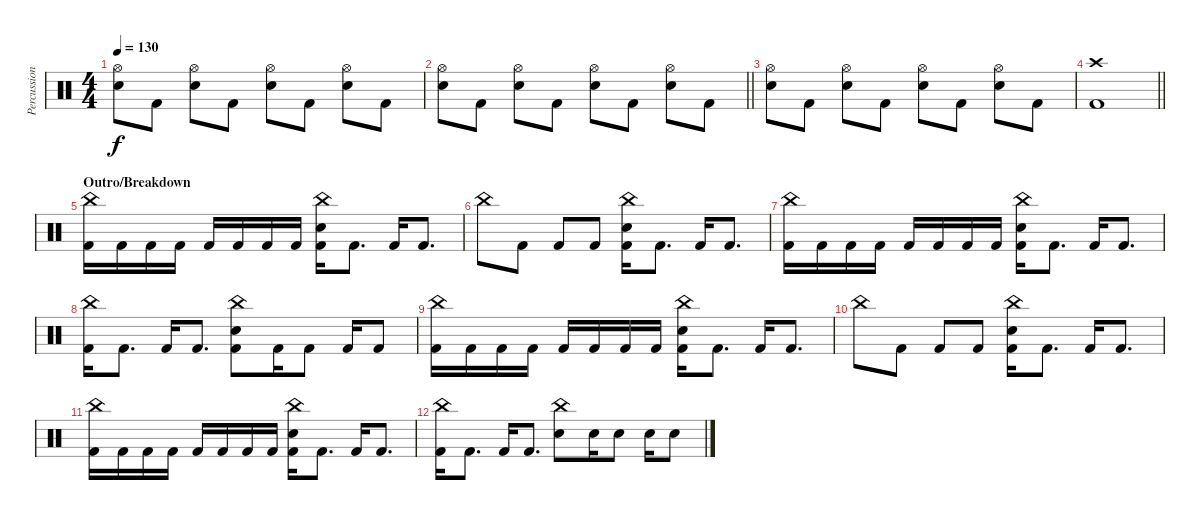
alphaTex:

\track ("Percussion" "Percussion") {instrument percussion}
\staff {score}
\articulation defaults
\ts (4 4)
\tempo 130
\clef neutral
\ks c
("Hi-Hat (open)" "Electric Snare (hit)").8{dy f} "Kick (hit) 2".8 ("Hi-Hat (open)" "Electric Snare (hit)").8 "Kick (hit) 2".8 ("Hi-Hat (open)" "Electric Snare (hit)").8 "Kick (hit) 2".8 ("Hi-Hat (open)" "Electric Snare (hit)").8 "Kick (hit) 2".8 |
\barLineRight lightlight
("Hi-Hat (open)" "Electric Snare (hit)").8 "Kick (hit) 2".8 ("Hi-Hat (open)" "Electric Snare (hit)").8 "Kick (hit) 2".8 ("Hi-Hat (open)" "Electric Snare (hit)").8 "Kick (hit) 2".8 ("Hi-Hat (open)" "Electric Snare (hit)").8 "Kick (hit) 2".8 |
("Hi-Hat (open)" "Electric Snare (hit)").8 "Kick (hit) 2".8 ("Hi-Hat (open)" "Electric Snare (hit)").8 "Kick (hit) 2".8 ("Hi-Hat (open)" "Electric Snare (hit)").8 "Kick (hit) 2".8 ("Hi-Hat (open)" "Electric Snare (hit)").8 "Kick (hit) 2".8 |
\barLineRight lightlight
("Crash high (hit)" "Kick (hit) 2").1 |
\section ("" "Outro/Breakdown")
("China (hit)" "Kick (hit) 2").16 "Kick (hit) 2".16 "Kick (hit) 2".16 "Kick (hit) 2".16 "Kick (hit) 2".16 "Kick (hit) 2".16 "Kick (hit) 2".16 "Kick (hit) 2".16 ("China (hit)" "Electric Snare (hit)" "Kick (hit) 2").16 "Kick (hit) 2".8{d} "Kick (hit) 2".16 "Kick (hit) 2".8{d} |
"China (hit)".8 "Kick (hit) 2".8 "Kick (hit) 2".8 "Kick (hit) 2".8 ("China (hit)" "Electric Snare (hit)" "Kick (hit) 2").16 "Kick (hit) 2".8{d} "Kick (hit) 2".16 "Kick (hit) 2".8{d} |
("China (hit)" "Kick (hit) 2").16 "Kick (hit) 2".16 "Kick (hit) 2".16 "Kick (hit) 2".16 "Kick (hit) 2".16 "Kick (hit) 2".16 "Kick (hit) 2".16 "Kick (hit) 2".16 ("China (hit)" "Electric Snare (hit)" "Kick (hit) 2").16 "Kick (hit) 2".8{d} "Kick (hit) 2".16 "Kick (hit) 2".8{d} |
("China (hit)" "Kick (hit) 2").16 "Kick (hit) 2".8{d} "Kick (hit) 2".16 "Kick (hit) 2".8{d} ("China (hit)" "Electric Snare (hit)" "Kick (hit) 2").8 "Kick (hit) 2".16 "Kick (hit) 2".8 "Kick (hit) 2".16 "Kick (hit) 2".8 |
("China (hit)" "Kick (hit) 2").16 "Kick (hit) 2".16 "Kick (hit) 2".16 "Kick (hit) 2".16 "Kick (hit) 2".16 "Kick (hit) 2".16 "Kick (hit) 2".16 "Kick (hit) 2".16 ("China (hit)" "Electric Snare (hit)" "Kick (hit) 2").16 "Kick (hit) 2".8{d} "Kick (hit) 2".16 "Kick (hit) 2".8{d} |
"China (hit)".8 "Kick (hit) 2".8 "Kick (hit) 2".8 "Kick (hit) 2".8 ("China (hit)" "Electric Snare (hit)" "Kick (hit) 2").16 "Kick (hit) 2".8{d} "Kick (hit) 2".16 "Kick (hit) 2".8{d} |
("China (hit)" "Kick (hit) 2").16 "Kick (hit) 2".16 "Kick (hit) 2".16 "Kick (hit) 2".16 "Kick (hit) 2".16 "Kick (hit) 2".16 "Kick (hit) 2".16 "Kick (hit) 2".16 ("China (hit)" "Electric Snare (hit)" "Kick (hit) 2").16 "Kick (hit) 2".8{d} "Kick (hit) 2".16 "Kick (hit) 2".8{d} |
("China (hit)" "Kick (hit) 2").16 "Kick (hit) 2".8{d} "Kick (hit) 2".16 "Kick (hit) 2".8{d} ("China (hit)" "Electric Snare (hit)").8 "Electric Snare (hit)".16 "Electric Snare (hit)".8 "Electric Snare (hit)".16 "Electric Snare (hit)".8
